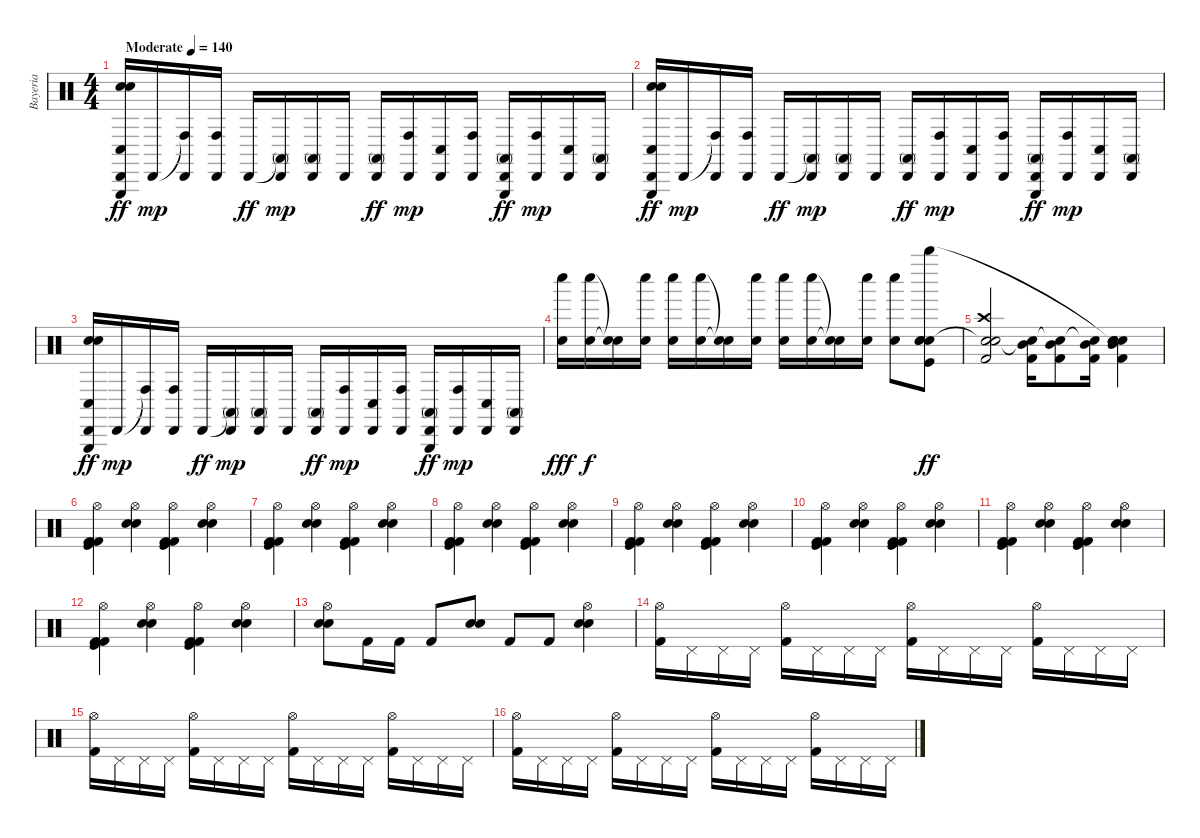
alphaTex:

\track ("Bayeria" "Bayeria") {instrument percussion}
\staff {score}
\articulation defaults
\ts (4 4)
\tempo (140 "Moderate")
\clef neutral
\ks c
("Snare (hit) 2" "Electric Snare (hit)" "Conga low (hit)" "Cabasa (hit)" "Triangle (hit)").16{dy ff} "Cabasa (hit)".16{dy mp} ("Conga high (hit)"{t} "Cabasa (hit)").16 ("Conga high (hit)" "Cabasa (hit)").16 "Cabasa (hit)".16{dy ff} ("Conga high (mute)"{t} "Cabasa (hit)").16{dy mp} ("Conga high (mute)" "Cabasa (hit)").16 "Cabasa (hit)".16 ("Conga high (mute)" "Cabasa (hit)").16{dy ff} ("Conga high (hit)" "Cabasa (hit)").16{dy mp} ("Conga low (hit)" "Cabasa (hit)").16 ("Conga high (hit)" "Cabasa (hit)").16 ("Conga high (mute)" "Cabasa (hit)" "Triangle (hit)").16{dy ff} ("Conga high (hit)" "Cabasa (hit)").16{dy mp} ("Conga low (hit)" "Cabasa (hit)").16 ("Conga high (mute)" "Cabasa (hit)").16 |
("Snare (hit) 2" "Electric Snare (hit)" "Conga low (hit)" "Cabasa (hit)" "Triangle (hit)").16{dy ff} "Cabasa (hit)".16{dy mp} ("Conga high (hit)"{t} "Cabasa (hit)").16 ("Conga high (hit)" "Cabasa (hit)").16 "Cabasa (hit)".16{dy ff} ("Conga high (mute)"{t} "Cabasa (hit)").16{dy mp} ("Conga high (mute)" "Cabasa (hit)").16 "Cabasa (hit)".16 ("Conga high (mute)" "Cabasa (hit)").16{dy ff} ("Conga high (hit)" "Cabasa (hit)").16{dy mp} ("Conga low (hit)" "Cabasa (hit)").16 ("Conga high (hit)" "Cabasa (hit)").16 ("Conga high (mute)" "Cabasa (hit)" "Triangle (hit)").16{dy ff} ("Conga high (hit)" "Cabasa (hit)").16{dy mp} ("Conga low (hit)" "Cabasa (hit)").16 ("Conga high (mute)" "Cabasa (hit)").16 |
("Snare (hit) 2" "Electric Snare (hit)" "Conga low (hit)" "Cabasa (hit)" "Triangle (hit)").16{dy ff} "Cabasa (hit)".16{dy mp} ("Conga high (hit)"{t} "Cabasa (hit)").16 ("Conga high (hit)" "Cabasa (hit)").16 "Cabasa (hit)".16{dy ff} ("Conga high (mute)"{t} "Cabasa (hit)").16{dy mp} ("Conga high (mute)" "Cabasa (hit)").16 "Cabasa (hit)".16 ("Conga high (mute)" "Cabasa (hit)").16{dy ff} ("Conga high (hit)" "Cabasa (hit)").16{dy mp} ("Conga low (hit)" "Cabasa (hit)").16 ("Conga high (hit)" "Cabasa (hit)").16 ("Conga high (mute)" "Cabasa (hit)" "Triangle (hit)").16{dy ff} ("Conga high (hit)" "Cabasa (hit)").16{dy mp} ("Conga low (hit)" "Cabasa (hit)").16 ("Conga high (mute)" "Cabasa (hit)").16 |
("Snare (hit) 2" "Whistle low (hit)").16{dy fff} ("Snare (hit) 2" "Whistle low (hit)").16{dy f} ("Snare (hit)"{t} "Snare (hit)"{t}).16 ("Snare (hit) 2" "Whistle low (hit)").16 ("Snare (hit) 2" "Whistle low (hit)").16 ("Snare (hit) 2" "Whistle low (hit)").16 ("Snare (hit)"{t} "Snare (hit)"{t}).16 ("Snare (hit) 2" "Whistle low (hit)").16 ("Snare (hit) 2" "Whistle low (hit)").16 ("Snare (hit) 2" "Whistle low (hit)").16 ("Snare (hit)"{t} "Snare (hit)"{t}).16 ("Snare (hit) 2" "Whistle low (hit)").16 ("Snare (hit) 2" "Whistle low (hit)").8 ("Snare (hit) 2" "Kick (hit)" "Electric Snare (hit)" "Electric Snare (hit)" "Whistle high (hit)").8{dy ff} |
("Crash high (hit)" "Kick (hit) 2" "Snare (hit) 2" "Snare (hit)"{t}).2 ("Kick (hit) 2" "Mid Tom (hit)" "Snare (hit)"{t}).16 ("Kick (hit) 2" "Mid Tom (hit)" "Snare (hit)"{t}).8 ("Kick (hit) 2" "Mid Tom (hit)" "Snare (hit)"{t}).16 ("Electric Snare (hit)" "Kick (hit) 2" "Mid Tom (hit)" "Snare (hit) 2" "Snare (hit)"{t}).4 |
("Kick (hit) 2" "Kick (hit)" "Kick (hit) 2" "Hi-Hat (open)").4 ("Electric Snare (hit)" "Snare (hit) 2" "Hi-Hat (open)").4 ("Kick (hit) 2" "Kick (hit)" "Kick (hit) 2" "Hi-Hat (open)").4 ("Electric Snare (hit)" "Snare (hit) 2" "Hi-Hat (open)").4 |
("Kick (hit) 2" "Kick (hit)" "Kick (hit) 2" "Hi-Hat (open)").4 ("Electric Snare (hit)" "Snare (hit) 2" "Hi-Hat (open)").4 ("Kick (hit) 2" "Kick (hit)" "Kick (hit) 2" "Hi-Hat (open)").4 ("Electric Snare (hit)" "Snare (hit) 2" "Hi-Hat (open)").4 |
("Kick (hit) 2" "Kick (hit)" "Kick (hit) 2" "Hi-Hat (open)").4 ("Electric Snare (hit)" "Snare (hit) 2" "Hi-Hat (open)").4 ("Kick (hit) 2" "Kick (hit)" "Kick (hit) 2" "Hi-Hat (open)").4 ("Electric Snare (hit)" "Snare (hit) 2" "Hi-Hat (open)").4 |
("Kick (hit) 2" "Kick (hit)" "Kick (hit) 2" "Hi-Hat (open)").4 ("Electric Snare (hit)" "Snare (hit) 2" "Hi-Hat (open)").4 ("Kick (hit) 2" "Kick (hit)" "Kick (hit) 2" "Hi-Hat (open)").4 ("Electric Snare (hit)" "Snare (hit) 2" "Hi-Hat (open)").4 |
("Kick (hit) 2" "Kick (hit)" "Kick (hit) 2" "Hi-Hat (open)").4 ("Electric Snare (hit)" "Snare (hit) 2" "Hi-Hat (open)").4 ("Kick (hit) 2" "Kick (hit)" "Kick (hit) 2" "Hi-Hat (open)").4 ("Electric Snare (hit)" "Snare (hit) 2" "Hi-Hat (open)").4 |
("Kick (hit) 2" "Kick (hit)" "Kick (hit) 2" "Hi-Hat (open)").4 ("Electric Snare (hit)" "Snare (hit) 2" "Hi-Hat (open)").4 ("Kick (hit) 2" "Kick (hit)" "Kick (hit) 2" "Hi-Hat (open)").4 ("Electric Snare (hit)" "Snare (hit) 2" "Hi-Hat (open)").4 |
("Kick (hit) 2" "Kick (hit)" "Kick (hit) 2" "Hi-Hat (open)").4 ("Electric Snare (hit)" "Snare (hit) 2" "Hi-Hat (open)").4 ("Kick (hit) 2" "Kick (hit)" "Kick (hit) 2" "Hi-Hat (open)").4 ("Electric Snare (hit)" "Snare (hit) 2" "Hi-Hat (open)").4 |
("Electric Snare (hit)" "Snare (hit) 2" "Hi-Hat (open)").8 "Kick (hit) 2".16 "Kick (hit) 2".16 "Kick (hit) 2".8 ("Electric Snare (hit)" "Snare (hit) 2").8 "Kick (hit) 2".8 "Kick (hit) 2".8 ("Electric Snare (hit)" "Snare (hit) 2" "Hi-Hat (open)").4 |
("Hi-Hat (open)" "Kick (hit) 2").16 "Pedal Hi-Hat (hit)".16 "Pedal Hi-Hat (hit)".16 "Pedal Hi-Hat (hit)".16 ("Hi-Hat (open)" "Kick (hit) 2").16 "Pedal Hi-Hat (hit)".16 "Pedal Hi-Hat (hit)".16 "Pedal Hi-Hat (hit)".16 ("Hi-Hat (open)" "Kick (hit) 2").16 "Pedal Hi-Hat (hit)".16 "Pedal Hi-Hat (hit)".16 "Pedal Hi-Hat (hit)".16 ("Hi-Hat (open)" "Kick (hit) 2").16 "Pedal Hi-Hat (hit)".16 "Pedal Hi-Hat (hit)".16 "Pedal Hi-Hat (hit)".16 |
("Hi-Hat (open)" "Kick (hit) 2").16 "Pedal Hi-Hat (hit)".16 "Pedal Hi-Hat (hit)".16 "Pedal Hi-Hat (hit)".16 ("Hi-Hat (open)" "Kick (hit) 2").16 "Pedal Hi-Hat (hit)".16 "Pedal Hi-Hat (hit)".16 "Pedal Hi-Hat (hit)".16 ("Hi-Hat (open)" "Kick (hit) 2").16 "Pedal Hi-Hat (hit)".16 "Pedal Hi-Hat (hit)".16 "Pedal Hi-Hat (hit)".16 ("Hi-Hat (open)" "Kick (hit) 2").16 "Pedal Hi-Hat (hit)".16 "Pedal Hi-Hat (hit)".16 "Pedal Hi-Hat (hit)".16 |
("Hi-Hat (open)" "Kick (hit) 2").16 "Pedal Hi-Hat (hit)".16 "Pedal Hi-Hat (hit)".16 "Pedal Hi-Hat (hit)".16 ("Hi-Hat (open)" "Kick (hit) 2").16 "Pedal Hi-Hat (hit)".16 "Pedal Hi-Hat (hit)".16 "Pedal Hi-Hat (hit)".16 ("Hi-Hat (open)" "Kick (hit) 2").16 "Pedal Hi-Hat (hit)".16 "Pedal Hi-Hat (hit)".16 "Pedal Hi-Hat (hit)".16 ("Hi-Hat (open)" "Kick (hit) 2").16 "Pedal Hi-Hat (hit)".16 "Pedal Hi-Hat (hit)".16 "Pedal Hi-Hat (hit)".16
